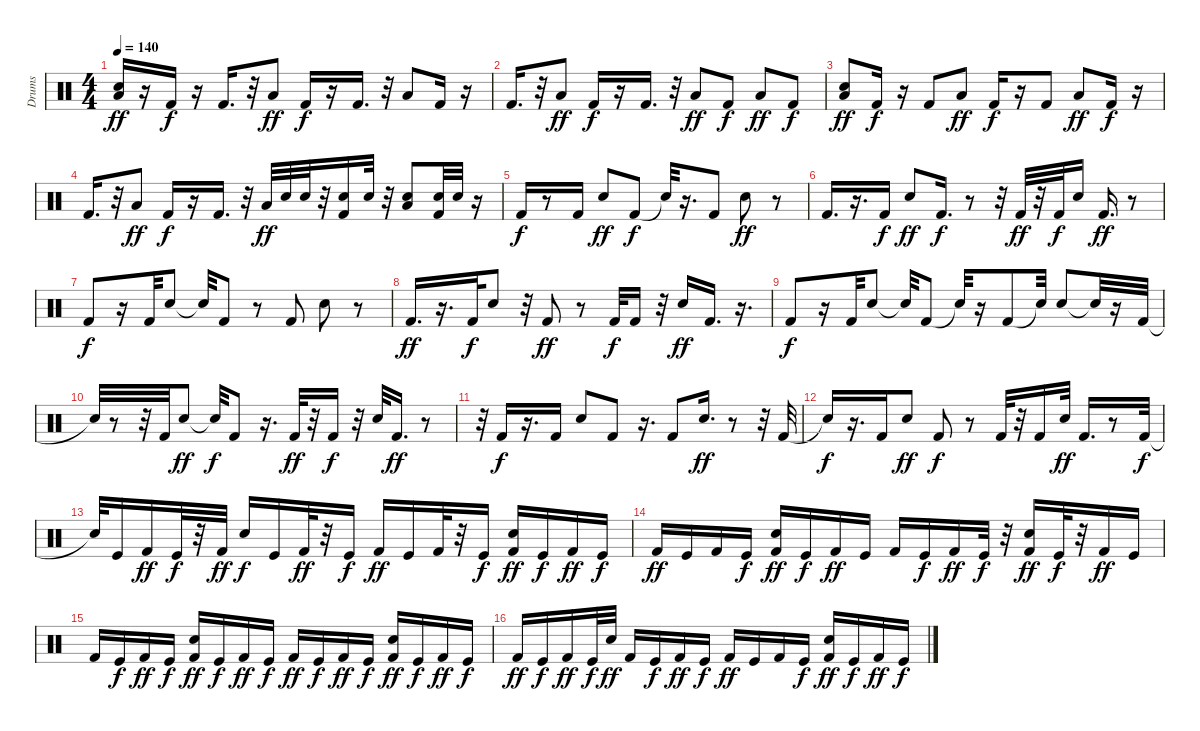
\track ("Drums" "Drums") {instrument percussion}
\staff {score}
\articulation defaults
\ts (4 4)
\tempo 140
\clef neutral
\ks c
("Low Floor Tom (hit)" "Electric Snare (hit)").16{dy ff} r.16 "Kick (hit) 2".16{dy f} r.16 "Kick (hit) 2".16{d} r.32 "Low Floor Tom (hit)".8{dy ff} "Kick (hit) 2".16{dy f} r.16 "Kick (hit) 2".16{d} r.32 "Low Floor Tom (hit)".8 "Kick (hit) 2".16 r.16 |
"Kick (hit) 2".16{d} r.32 "Low Floor Tom (hit)".8{dy ff} "Kick (hit) 2".16{dy f} r.16 "Kick (hit) 2".16{d} r.32 "Low Floor Tom (hit)".8{dy ff} "Kick (hit) 2".8{dy f} "Low Floor Tom (hit)".8{dy ff} "Kick (hit) 2".8{dy f} |
("Low Floor Tom (hit)" "Electric Snare (hit)").8{dy ff} "Kick (hit) 2".16{dy f} r.16 "Kick (hit) 2".8 "Low Floor Tom (hit)".8{dy ff} "Kick (hit) 2".16{dy f} r.16 "Kick (hit) 2".8 "Low Floor Tom (hit)".8{dy ff} "Kick (hit) 2".16{dy f} r.16 |
"Kick (hit) 2".16{d} r.32 "Low Floor Tom (hit)".8{dy ff} "Kick (hit) 2".16{dy f} r.16 "Kick (hit) 2".16{d} r.32 "Low Floor Tom (hit)".32{dy ff} "Electric Snare (hit)".32 "Electric Snare (hit)".32 r.32 ("Electric Snare (hit)" "Kick (hit) 2").16 "Electric Snare (hit)".32 r.32 ("Electric Snare (hit)" "Low Floor Tom (hit)").8 ("Electric Snare (hit)" "Kick (hit) 2").32 "Electric Snare (hit)".32 r.16 |
"Kick (hit) 2".16{dy f} r.8 "Kick (hit) 2".16 "Snare (hit) 2".8{dy ff} "Kick (hit) 2".8{dy f} "Snare (hit)"{t}.32 r.16{d} "Kick (hit) 2".8 "Snare (hit) 2".8{dy ff} r.8 |
"Kick (hit) 2".16{d} r.16{d} "Kick (hit) 2".16{dy f} "Snare (hit) 2".8{dy ff} "Kick (hit) 2".16{d dy f} r.8 r.32 "Kick (hit) 2".32{dy ff} r.32 "Kick (hit) 2".32{dy f} "Snare (hit) 2".16 "Kick (hit) 2".16{d dy ff} r.8 |
"Kick (hit) 2".8{dy f} r.16 "Kick (hit) 2".32 "Snare (hit) 2".8 "Snare (hit)"{t}.32 "Kick (hit) 2".8 r.8 "Kick (hit) 2".8 "Snare (hit) 2".8 r.8 |
"Kick (hit) 2".16{d dy ff} r.16{d} "Kick (hit) 2".32{dy f} "Snare (hit) 2".8 r.32 "Kick (hit) 2".8{dy ff} r.8 "Kick (hit) 2".32{dy f} "Kick (hit) 2".16 r.32 "Snare (hit) 2".16{dy ff} "Kick (hit) 2".16{d} r.16{d} |
"Kick (hit) 2".8{dy f} r.16 "Kick (hit) 2".32 "Snare (hit) 2".8 "Snare (hit)"{t}.32 "Kick (hit) 2".8 "Snare (hit)"{t}.32 r.16 "Kick (hit) 2".8 "Snare (hit)"{t}.32 "Snare (hit) 2".8 "Snare (hit)"{t}.32 r.16 "Kick (hit) 2".32 |
"Snare (hit)"{t}.32 r.8 r.32 "Kick (hit) 2".32 "Snare (hit) 2".8{dy ff} "Snare (hit)"{t}.32{dy f} "Kick (hit) 2".8 r.16{d} "Kick (hit) 2".32{dy ff} r.32 "Kick (hit) 2".16{dy f} r.32 "Snare (hit) 2".32 "Kick (hit) 2".16{d dy ff} r.8 |
r.32 "Kick (hit) 2".16{dy f} r.16{d} "Kick (hit) 2".16 "Snare (hit) 2".8 "Kick (hit) 2".8 r.16{d} "Kick (hit) 2".8 "Snare (hit) 2".16{d dy ff} r.8 r.32 "Kick (hit) 2".32 |
"Snare (hit)"{t}.16{dy f} r.16{d} "Kick (hit) 2".16 "Snare (hit) 2".8{dy ff} "Kick (hit) 2".8{dy f} r.8 "Kick (hit) 2".32 r.32 "Kick (hit) 2".16 "Snare (hit) 2".32{dy ff} "Kick (hit) 2".16{d} r.8 "Kick (hit) 2".32{dy f} |
"Snare (hit)"{t}.32 "Kick (hit)".16 "Kick (hit) 2".16{dy ff} "Kick (hit)".32{dy f} r.32 "Kick (hit) 2".32{dy ff} "Snare (hit) 2".16{dy f} "Kick (hit)".16 "Kick (hit) 2".32{dy ff} r.32 "Kick (hit)".16{dy f} "Kick (hit) 2".16{dy ff} "Kick (hit)".16 "Kick (hit) 2".32 r.32 "Kick (hit)".16{dy f} ("Kick (hit) 2" "Snare (hit) 2").16{dy ff} "Kick (hit)".16{dy f} "Kick (hit) 2".16{dy ff} "Kick (hit)".16{dy f} |
"Kick (hit) 2".16{dy ff} "Kick (hit)".16 "Kick (hit) 2".16 "Kick (hit)".16{dy f} ("Kick (hit) 2" "Snare (hit) 2").16{dy ff} "Kick (hit)".16{dy f} "Kick (hit) 2".16{dy ff} "Kick (hit)".16 "Kick (hit) 2".16 "Kick (hit)".16{dy f} "Kick (hit) 2".16{dy ff} "Kick (hit)".32{dy f} r.32 ("Kick (hit) 2" "Snare (hit) 2").16{dy ff} "Kick (hit)".32{dy f} r.32 "Kick (hit) 2".16{dy ff} "Kick (hit)".16 |
"Kick (hit) 2".16 "Kick (hit)".16{dy f} "Kick (hit) 2".16{dy ff} "Kick (hit)".16{dy f} ("Kick (hit) 2" "Snare (hit) 2").16{dy ff} "Kick (hit)".16{dy f} "Kick (hit) 2".16{dy ff} "Kick (hit)".16{dy f} "Kick (hit) 2".16{dy ff} "Kick (hit)".16{dy f} "Kick (hit) 2".16{dy ff} "Kick (hit)".16{dy f} ("Snare (hit) 2" "Kick (hit) 2").16{dy ff} "Kick (hit)".16{dy f} "Kick (hit) 2".16{dy ff} "Kick (hit)".16{dy f} |
"Kick (hit) 2".16{dy ff} "Kick (hit)".16{dy f} "Kick (hit) 2".16{dy ff} "Kick (hit)".32{dy f} "Snare (hit) 2".32{dy ff} "Kick (hit) 2".16 "Kick (hit)".16{dy f} "Kick (hit) 2".16{dy ff} "Kick (hit)".16{dy f} "Kick (hit) 2".16{dy ff} "Kick (hit)".16 "Kick (hit) 2".16 "Kick (hit)".16{dy f} ("Kick (hit) 2" "Snare (hit) 2").16{dy ff} "Kick (hit)".16{dy f} "Kick (hit) 2".16{dy ff} "Kick (hit)".16{dy f}
